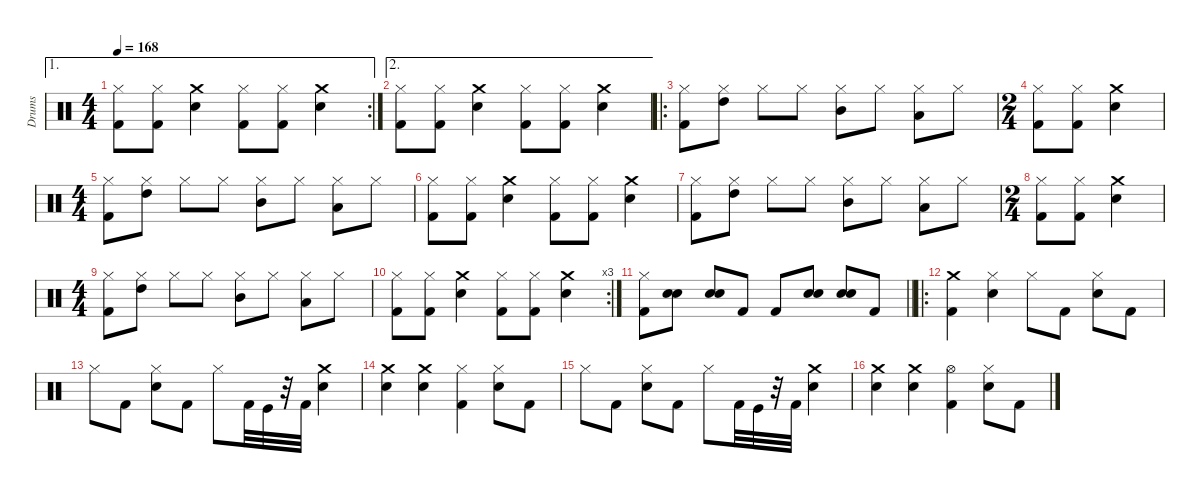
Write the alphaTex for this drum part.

\defaultSystemsLayout 4
\hideDynamics
\bracketExtendMode nobrackets
\firstSystemTrackNameMode fullname
\otherSystemsTrackNameOrientation horizontal
\track ("Drums" "drm.") {instrument percussion}
\staff {score}
\articulation defaults
\ae 1
\rc 2
\ts (4 4)
\tempo 168
\clef neutral
\ks c
("Hi-Hat (closed)" "Kick (hit) 2").8{dy fff beam Down} ("Hi-Hat (closed)" "Kick (hit) 2").8{beam Down} ("Snare (hit) 2" "Crash medium (hit)").4{beam Down} ("Kick (hit) 2" "Hi-Hat (closed)").8{beam Down} ("Kick (hit) 2" "Hi-Hat (closed)").8{beam Down} ("Crash medium (hit)" "Snare (hit) 2").4{beam Down} |
\ae 2
("Hi-Hat (closed)" "Kick (hit) 2").8{beam Down} ("Hi-Hat (closed)" "Kick (hit) 2").8{beam Down} ("Snare (hit) 2" "Crash medium (hit)").4{beam Down} ("Kick (hit) 2" "Hi-Hat (closed)").8{beam Down} ("Kick (hit) 2" "Hi-Hat (closed)").8{beam Down} ("Crash medium (hit)" "Snare (hit) 2").4{beam Down} |
\ro
("Hi-Hat (closed)" "Kick (hit) 2").8{beam Down} ("High Tom (hit)" "Hi-Hat (closed)").8{beam Down} "Hi-Hat (closed)".8{beam Down} "Hi-Hat (closed)".8{beam Down} ("Mid Tom (hit)" "Hi-Hat (closed)").8{beam Down} "Hi-Hat (closed)".8{beam Down} ("Low Tom (hit)" "Hi-Hat (closed)").8{beam Down} "Hi-Hat (closed)".8{beam Down} |
\ts (2 4)
\beaming (8 2 2)
("Kick (hit) 2" "Hi-Hat (closed)").8{beam Down} ("Kick (hit) 2" "Hi-Hat (closed)").8{beam Down} ("Snare (hit) 2" "Crash medium (hit)").4{beam Down} |
\ts (4 4)
\beaming (8 2 2 2 2)
("Hi-Hat (closed)" "Kick (hit) 2").8{beam Down} ("High Tom (hit)" "Hi-Hat (closed)").8{beam Down} "Hi-Hat (closed)".8{beam Down} "Hi-Hat (closed)".8{beam Down} ("Mid Tom (hit)" "Hi-Hat (closed)").8{beam Down} "Hi-Hat (closed)".8{beam Down} ("Hi-Hat (closed)" "Low Tom (hit)").8{beam Down} "Hi-Hat (closed)".8{beam Down} |
("Hi-Hat (closed)" "Kick (hit) 2").8{beam Down} ("Hi-Hat (closed)" "Kick (hit) 2").8{beam Down} ("Snare (hit) 2" "Crash medium (hit)").4{beam Down} ("Kick (hit) 2" "Hi-Hat (closed)").8{beam Down} ("Kick (hit) 2" "Hi-Hat (closed)").8{beam Down} ("Crash medium (hit)" "Snare (hit) 2").4{beam Down} |
("Hi-Hat (closed)" "Kick (hit) 2").8{beam Down} ("High Tom (hit)" "Hi-Hat (closed)").8{beam Down} "Hi-Hat (closed)".8{beam Down} "Hi-Hat (closed)".8{beam Down} ("Mid Tom (hit)" "Hi-Hat (closed)").8{beam Down} "Hi-Hat (closed)".8{beam Down} ("Hi-Hat (closed)" "Low Tom (hit)").8{beam Down} "Hi-Hat (closed)".8{beam Down} |
\ts (2 4)
\beaming (8 2 2)
("Hi-Hat (closed)" "Kick (hit) 2").8{beam Down} ("Hi-Hat (closed)" "Kick (hit) 2").8{beam Down} ("Crash medium (hit)" "Snare (hit) 2").4{beam Down} |
\ts (4 4)
\beaming (8 2 2 2 2)
("Hi-Hat (closed)" "Kick (hit) 2").8{beam Down} ("High Tom (hit)" "Hi-Hat (closed)").8{beam Down} "Hi-Hat (closed)".8{beam Down} "Hi-Hat (closed)".8{beam Down} ("Mid Tom (hit)" "Hi-Hat (closed)").8{beam Down} "Hi-Hat (closed)".8{beam Down} ("Hi-Hat (closed)" "Low Tom (hit)").8{beam Down} "Hi-Hat (closed)".8{beam Down} |
\rc 3
("Hi-Hat (closed)" "Kick (hit) 2").8{beam Down} ("Hi-Hat (closed)" "Kick (hit) 2").8{beam Down} ("Snare (hit) 2" "Crash medium (hit)").4{beam Down} ("Kick (hit) 2" "Hi-Hat (closed)").8{beam Down} ("Kick (hit) 2" "Hi-Hat (closed)").8{beam Down} ("Crash medium (hit)" "Snare (hit) 2").4{beam Down} |
\barLineRight lightlight
("Kick (hit) 2" "Hi-Hat (closed)").8{beam Down} ("Snare (hit) 2" "Snare (hit) 2").8{dy f beam Down} ("Snare (hit) 2" "Snare (hit) 2").8{beam Up} "Kick (hit) 2".8{dy fff beam Up} "Kick (hit) 2".8{beam Up} ("Snare (hit) 2" "Snare (hit) 2").8{dy f beam Up} ("Snare (hit) 2" "Snare (hit) 2").8{beam Up} "Kick (hit) 2".8{dy fff beam Up} |
\ro
("Kick (hit) 2" "Crash medium (hit)").4{beam Down} ("Hi-Hat (closed)" "Snare (hit) 2").4{beam Down} "Hi-Hat (closed)".8{beam Down} "Kick (hit) 2".8{beam Down} ("Snare (hit) 2" "Hi-Hat (closed)").8{beam Down} "Kick (hit) 2".8{beam Down} |
"Hi-Hat (closed)".8{beam Down} "Kick (hit) 2".8{beam Down} ("Snare (hit) 2" "Hi-Hat (closed)").8{beam Down} "Kick (hit) 2".8{beam Down} "Hi-Hat (closed)".8{beam Down} "Kick (hit) 2".32{beam Down} "Kick (hit)".32{beam Down} r.32{beam Down} "Kick (hit) 2".32{beam Down} ("Crash medium (hit)" "Snare (hit) 2").4{beam Down} |
("Crash medium (hit)" "Snare (hit) 2").4{beam Down} ("Crash medium (hit)" "Snare (hit) 2").4{beam Down} ("Hi-Hat (closed)" "Kick (hit) 2").4{beam Down} ("Snare (hit) 2" "Hi-Hat (closed)").8{beam Down} "Kick (hit) 2".8{beam Down} |
"Hi-Hat (closed)".8{beam Down} "Kick (hit) 2".8{beam Down} ("Snare (hit) 2" "Hi-Hat (closed)").8{beam Down} "Kick (hit) 2".8{beam Down} "Hi-Hat (closed)".8{beam Down} "Kick (hit) 2".32{beam Down} "Kick (hit)".32{beam Down} r.32{beam Down} "Kick (hit) 2".32{beam Down} ("Crash medium (hit)" "Snare (hit) 2").4{beam Down} |
("Crash medium (hit)" "Snare (hit) 2").4{beam Down} ("Crash medium (hit)" "Snare (hit) 2").4{beam Down} ("Hi-Hat (open)" "Kick (hit) 2").4{beam Down} ("Snare (hit) 2" "Hi-Hat (closed)").8{beam Down} "Kick (hit) 2".8{beam Down}
